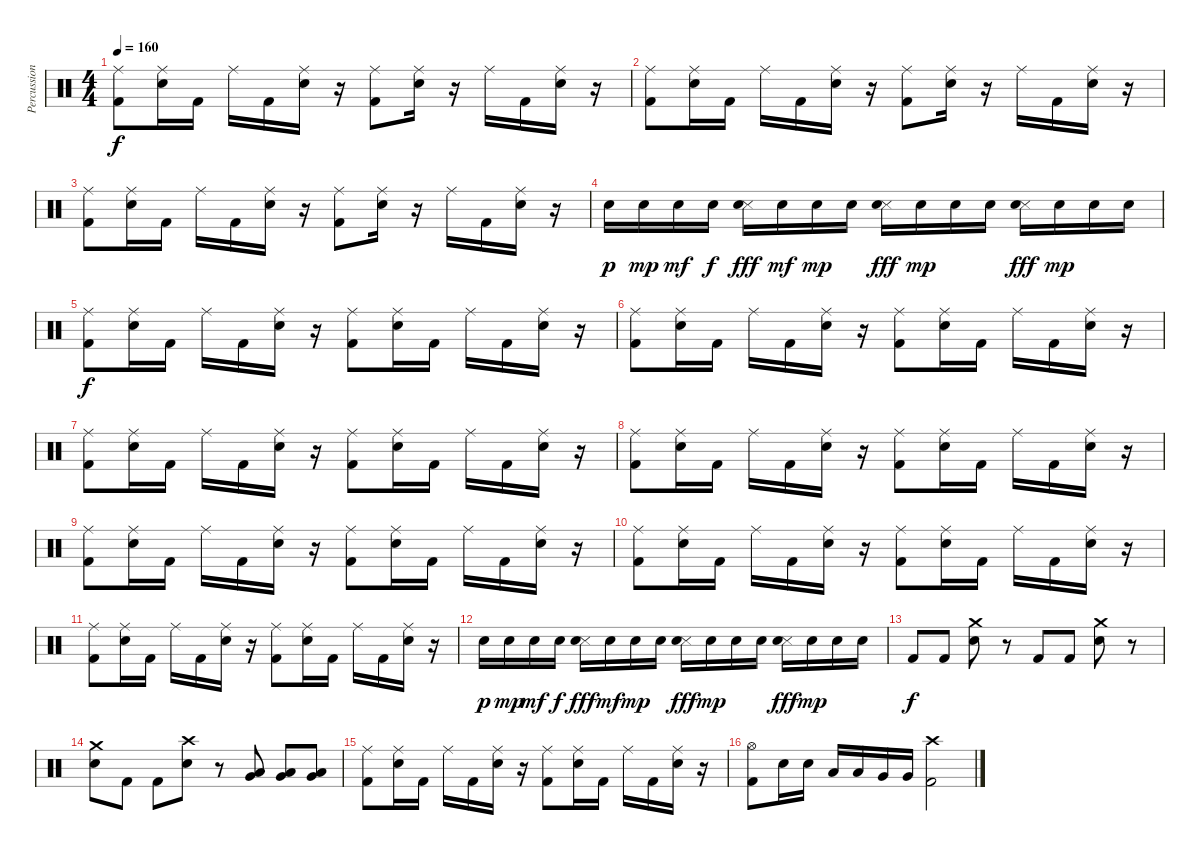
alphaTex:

\track ("Percussions" "Percussion") {instrument percussion}
\staff {score}
\articulation defaults
\ts (4 4)
\tempo 160
\clef neutral
\ks c
("Ride (middle)" "Kick (hit) 2").8{dy f} ("Ride (middle)" "Snare (hit) 2").16 "Kick (hit) 2".16 "Ride (middle)".16 "Kick (hit) 2".16 ("Ride (middle)" "Snare (hit) 2").16 r.16 ("Ride (middle)" "Kick (hit) 2").8 ("Ride (middle)" "Snare (hit) 2").16 r.16 "Ride (middle)".16 "Kick (hit) 2".16 ("Ride (middle)" "Snare (hit) 2").16 r.16 |
("Ride (middle)" "Kick (hit) 2").8 ("Ride (middle)" "Snare (hit) 2").16 "Kick (hit) 2".16 "Ride (middle)".16 "Kick (hit) 2".16 ("Ride (middle)" "Snare (hit) 2").16 r.16 ("Ride (middle)" "Kick (hit) 2").8 ("Ride (middle)" "Snare (hit) 2").16 r.16 "Ride (middle)".16 "Kick (hit) 2".16 ("Ride (middle)" "Snare (hit) 2").16 r.16 |
("Ride (middle)" "Kick (hit) 2").8 ("Ride (middle)" "Snare (hit) 2").16 "Kick (hit) 2".16 "Ride (middle)".16 "Kick (hit) 2".16 ("Ride (middle)" "Snare (hit) 2").16 r.16 ("Ride (middle)" "Kick (hit) 2").8 ("Ride (middle)" "Snare (hit) 2").16 r.16 "Ride (middle)".16 "Kick (hit) 2".16 ("Ride (middle)" "Snare (hit) 2").16 r.16 |
"Snare (hit) 2".16{dy p} "Snare (hit) 2".16{dy mp} "Snare (hit) 2".16{dy mf} "Snare (hit) 2".16{dy f} ("Snare (side stick) 3" "Snare (hit) 2").16{dy fff} "Snare (hit) 2".16{dy mf} "Snare (hit) 2".16{dy mp} "Snare (hit) 2".16 ("Snare (side stick) 3" "Snare (hit) 2").16{dy fff} "Snare (hit) 2".16{dy mp} "Snare (hit) 2".16 "Snare (hit) 2".16 ("Snare (side stick) 3" "Snare (hit) 2").16{dy fff} "Snare (hit) 2".16{dy mp} "Snare (hit) 2".16 "Snare (hit) 2".16 |
("Ride (middle)" "Kick (hit) 2").8{dy f} ("Ride (middle)" "Snare (hit) 2").16 "Kick (hit) 2".16 "Ride (middle)".16 "Kick (hit) 2".16 ("Ride (middle)" "Snare (hit) 2").16 r.16 ("Ride (middle)" "Kick (hit) 2").8 ("Ride (middle)" "Snare (hit) 2").16 "Kick (hit) 2".16 "Ride (middle)".16 "Kick (hit) 2".16 ("Ride (middle)" "Snare (hit) 2").16 r.16 |
("Ride (middle)" "Kick (hit) 2").8 ("Ride (middle)" "Snare (hit) 2").16 "Kick (hit) 2".16 "Ride (middle)".16 "Kick (hit) 2".16 ("Ride (middle)" "Snare (hit) 2").16 r.16 ("Ride (middle)" "Kick (hit) 2").8 ("Ride (middle)" "Snare (hit) 2").16 "Kick (hit) 2".16 "Ride (middle)".16 "Kick (hit) 2".16 ("Ride (middle)" "Snare (hit) 2").16 r.16 |
("Ride (middle)" "Kick (hit) 2").8 ("Ride (middle)" "Snare (hit) 2").16 "Kick (hit) 2".16 "Ride (middle)".16 "Kick (hit) 2".16 ("Ride (middle)" "Snare (hit) 2").16 r.16 ("Ride (middle)" "Kick (hit) 2").8 ("Ride (middle)" "Snare (hit) 2").16 "Kick (hit) 2".16 "Ride (middle)".16 "Kick (hit) 2".16 ("Ride (middle)" "Snare (hit) 2").16 r.16 |
("Ride (middle)" "Kick (hit) 2").8 ("Ride (middle)" "Snare (hit) 2").16 "Kick (hit) 2".16 "Ride (middle)".16 "Kick (hit) 2".16 ("Ride (middle)" "Snare (hit) 2").16 r.16 ("Ride (middle)" "Kick (hit) 2").8 ("Ride (middle)" "Snare (hit) 2").16 "Kick (hit) 2".16 "Ride (middle)".16 "Kick (hit) 2".16 ("Ride (middle)" "Snare (hit) 2").16 r.16 |
("Ride (middle)" "Kick (hit) 2").8 ("Ride (middle)" "Snare (hit) 2").16 "Kick (hit) 2".16 "Ride (middle)".16 "Kick (hit) 2".16 ("Ride (middle)" "Snare (hit) 2").16 r.16 ("Ride (middle)" "Kick (hit) 2").8 ("Ride (middle)" "Snare (hit) 2").16 "Kick (hit) 2".16 "Ride (middle)".16 "Kick (hit) 2".16 ("Ride (middle)" "Snare (hit) 2").16 r.16 |
("Ride (middle)" "Kick (hit) 2").8 ("Ride (middle)" "Snare (hit) 2").16 "Kick (hit) 2".16 "Ride (middle)".16 "Kick (hit) 2".16 ("Ride (middle)" "Snare (hit) 2").16 r.16 ("Ride (middle)" "Kick (hit) 2").8 ("Ride (middle)" "Snare (hit) 2").16 "Kick (hit) 2".16 "Ride (middle)".16 "Kick (hit) 2".16 ("Ride (middle)" "Snare (hit) 2").16 r.16 |
("Ride (middle)" "Kick (hit) 2").8 ("Ride (middle)" "Snare (hit) 2").16 "Kick (hit) 2".16 "Ride (middle)".16 "Kick (hit) 2".16 ("Ride (middle)" "Snare (hit) 2").16 r.16 ("Ride (middle)" "Kick (hit) 2").8 ("Ride (middle)" "Snare (hit) 2").16 "Kick (hit) 2".16 "Ride (middle)".16 "Kick (hit) 2".16 ("Ride (middle)" "Snare (hit) 2").16 r.16 |
"Snare (hit) 2".16{dy p} "Snare (hit) 2".16{dy mp} "Snare (hit) 2".16{dy mf} "Snare (hit) 2".16{dy f} ("Snare (side stick) 3" "Snare (hit) 2").16{dy fff} "Snare (hit) 2".16{dy mf} "Snare (hit) 2".16{dy mp} "Snare (hit) 2".16 ("Snare (side stick) 3" "Snare (hit) 2").16{dy fff} "Snare (hit) 2".16{dy mp} "Snare (hit) 2".16 "Snare (hit) 2".16 ("Snare (side stick) 3" "Snare (hit) 2").16{dy fff} "Snare (hit) 2".16{dy mp} "Snare (hit) 2".16 "Snare (hit) 2".16 |
"Kick (hit) 2".8{dy f} "Kick (hit) 2".8 ("Crash medium (hit)" "Snare (hit) 2").8 r.8 "Kick (hit) 2".8 "Kick (hit) 2".8 ("Crash medium (hit)" "Snare (hit) 2").8 r.8 |
("Crash medium (hit)" "Snare (hit) 2").8 "Kick (hit) 2".8 "Kick (hit) 2".8 ("Crash high (hit)" "Snare (hit) 2").8 r.8 ("Low Tom (hit)" "Very Low Tom (hit)").8 ("Low Tom (hit)" "Very Low Tom (hit)").8 ("Low Tom (hit)" "Very Low Tom (hit)").8 |
("Ride (middle)" "Kick (hit) 2").8 ("Ride (middle)" "Snare (hit) 2").16 "Kick (hit) 2".16 "Ride (middle)".16 "Kick (hit) 2".16 ("Ride (middle)" "Snare (hit) 2").16 r.16 ("Ride (middle)" "Kick (hit) 2").8 ("Ride (middle)" "Snare (hit) 2").16 "Kick (hit) 2".16 "Ride (middle)".16 "Kick (hit) 2".16 ("Ride (middle)" "Snare (hit) 2").16 r.16 |
("Hi-Hat (open)" "Kick (hit) 2").8 "Snare (hit) 2".16 "Snare (hit) 2".16 "Low Tom (hit)".16 "Low Tom (hit)".16 "Very Low Tom (hit)".16 "Very Low Tom (hit)".16 ("Crash high (hit)" "Kick (hit) 2").2
